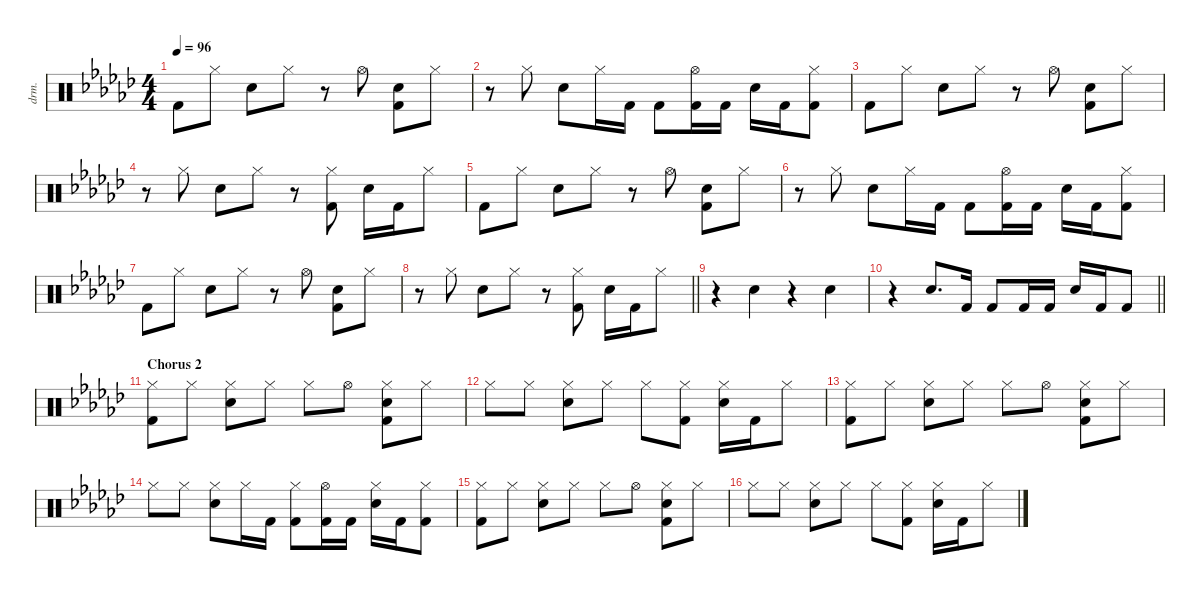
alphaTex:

\defaultSystemsLayout 4
\hideDynamics
\bracketExtendMode nobrackets
\otherSystemsTrackNameOrientation horizontal
\track ("Percussion" "drm.") {instrument percussion}
\staff {score}
\articulation defaults
\ts (4 4)
\tempo 96
\clef neutral
\ks gb "Kick (hit) 2"{acc forcenatural}.8{dy f beam Down} "Hi-Hat (closed)"{acc forcenatural}.8{beam Down} "Snare (hit) 2"{acc forcenatural}.8{beam Down} "Hi-Hat (closed)"{acc forcenatural}.8{beam Down}
r.8{beam Down} "Hi-Hat (open)"{acc forcenatural}.8{beam Down} ("Snare (hit) 2"{acc forcenatural} "Kick (hit) 2"{acc forcenatural}).8{beam Down} "Hi-Hat (closed)"{acc forcenatural}.8{beam Down} |
r.8{beam Down} "Hi-Hat (closed)"{acc forcenatural}.8{beam Down} "Snare (hit) 2"{acc forcenatural}.8{beam Down} "Hi-Hat (closed)"{acc forcenatural}.16{beam Down} "Kick (hit) 2"{acc forcenatural}.16{beam Down} "Kick (hit) 2"{acc forcenatural}.8{beam Down} ("Hi-Hat (open)"{acc forcenatural} "Kick (hit) 2"{acc forcenatural}).16{beam Down} "Kick (hit) 2"{acc forcenatural}.16{beam Down} "Snare (hit) 2"{acc forcenatural}.16{beam Down} "Kick (hit) 2"{acc forcenatural}.16{beam Down} ("Hi-Hat (closed)"{acc forcenatural} "Kick (hit) 2"{acc forcenatural}).8{beam Down} |
"Kick (hit) 2"{acc forcenatural}.8{beam Down} "Hi-Hat (closed)"{acc forcenatural}.8{beam Down} "Snare (hit) 2"{acc forcenatural}.8{beam Down} "Hi-Hat (closed)"{acc forcenatural}.8{beam Down} r.8{beam Down} "Hi-Hat (open)"{acc forcenatural}.8{beam Down} ("Snare (hit) 2"{acc forcenatural} "Kick (hit) 2"{acc forcenatural}).8{beam Down} "Hi-Hat (closed)"{acc forcenatural}.8{beam Down} |
r.8{beam Down} "Hi-Hat (closed)"{acc forcenatural}.8{beam Down} "Snare (hit) 2"{acc forcenatural}.8{beam Down} "Hi-Hat (closed)"{acc forcenatural}.8{beam Down} r.8{beam Down} ("Hi-Hat (closed)"{acc forcenatural} "Kick (hit) 2"{acc forcenatural}).8{beam Down} "Snare (hit) 2"{acc forcenatural}.16{beam Down} "Kick (hit) 2"{acc forcenatural}.16{beam Down} "Hi-Hat (closed)"{acc forcenatural}.8{beam Down} |
"Kick (hit) 2"{acc forcenatural}.8{beam Down} "Hi-Hat (closed)"{acc forcenatural}.8{beam Down} "Snare (hit) 2"{acc forcenatural}.8{beam Down} "Hi-Hat (closed)"{acc forcenatural}.8{beam Down} r.8{beam Down} "Hi-Hat (open)"{acc forcenatural}.8{beam Down} ("Snare (hit) 2"{acc forcenatural} "Kick (hit) 2"{acc forcenatural}).8{beam Down} "Hi-Hat (closed)"{acc forcenatural}.8{beam Down} |
r.8{beam Down} "Hi-Hat (closed)"{acc forcenatural}.8{beam Down} "Snare (hit) 2"{acc forcenatural}.8{beam Down} "Hi-Hat (closed)"{acc forcenatural}.16{beam Down} "Kick (hit) 2"{acc forcenatural}.16{beam Down} "Kick (hit) 2"{acc forcenatural}.8{beam Down} ("Hi-Hat (open)"{acc forcenatural} "Kick (hit) 2"{acc forcenatural}).16{beam Down} "Kick (hit) 2"{acc forcenatural}.16{beam Down} "Snare (hit) 2"{acc forcenatural}.16{beam Down} "Kick (hit) 2"{acc forcenatural}.16{beam Down} ("Hi-Hat (closed)"{acc forcenatural} "Kick (hit) 2"{acc forcenatural}).8{beam Down} |
"Kick (hit) 2"{acc forcenatural}.8{beam Down} "Hi-Hat (closed)"{acc forcenatural}.8{beam Down} "Snare (hit) 2"{acc forcenatural}.8{beam Down} "Hi-Hat (closed)"{acc forcenatural}.8{beam Down} r.8{beam Down} "Hi-Hat (open)"{acc forcenatural}.8{beam Down} ("Snare (hit) 2"{acc forcenatural} "Kick (hit) 2"{acc forcenatural}).8{beam Down} "Hi-Hat (closed)"{acc forcenatural}.8{beam Down} |
\barLineRight lightlight
r.8{beam Down} "Hi-Hat (closed)"{acc forcenatural}.8{beam Down} "Snare (hit) 2"{acc forcenatural}.8{beam Down} "Hi-Hat (closed)"{acc forcenatural}.8{beam Down} r.8{beam Down} ("Hi-Hat (closed)"{acc forcenatural} "Kick (hit) 2"{acc forcenatural}).8{beam Down} "Snare (hit) 2"{acc forcenatural}.16{beam Down} "Kick (hit) 2"{acc forcenatural}.16{beam Down} "Hi-Hat (closed)"{acc forcenatural}.8{beam Down} |
r.4{beam Down} "Snare (hit) 2"{acc forcenatural}.4{beam Down} r.4{beam Down} "Snare (hit) 2"{acc forcenatural}.4{beam Down} |
\barLineRight lightlight
r.4{beam Down} "Snare (hit) 2"{acc forcenatural}.8{d beam Up} "Kick (hit) 2"{acc forcenatural}.16{beam Up} "Kick (hit) 2"{acc forcenatural}.8{beam Up} "Kick (hit) 2"{acc forcenatural}.16{beam Up} "Kick (hit) 2"{acc forcenatural}.16{beam Up} "Snare (hit) 2"{acc forcenatural}.16{beam Up} "Kick (hit) 2"{acc forcenatural}.16{beam Up} "Kick (hit) 2"{acc forcenatural}.8{beam Up} |
\section ("" "Chorus 2")
("Hi-Hat (closed)"{acc forcenatural} "Kick (hit) 2"{acc forcenatural}).8{beam Down} "Hi-Hat (closed)"{acc forcenatural}.8{beam Down} ("Hi-Hat (closed)"{acc forcenatural} "Snare (hit) 2"{acc forcenatural}).8{beam Down} "Hi-Hat (closed)"{acc forcenatural}.8{beam Down} "Hi-Hat (closed)"{acc forcenatural}.8{beam Down} "Hi-Hat (open)"{acc forcenatural}.8{beam Down} ("Hi-Hat (closed)"{acc forcenatural} "Snare (hit) 2"{acc forcenatural} "Kick (hit) 2"{acc forcenatural}).8{beam Down} "Hi-Hat (closed)"{acc forcenatural}.8{beam Down} |
"Hi-Hat (closed)"{acc forcenatural}.8{beam Down} "Hi-Hat (closed)"{acc forcenatural}.8{beam Down} ("Hi-Hat (closed)"{acc forcenatural} "Snare (hit) 2"{acc forcenatural}).8{beam Down} "Hi-Hat (closed)"{acc forcenatural}.8{beam Down} "Hi-Hat (closed)"{acc forcenatural}.8{beam Down} ("Hi-Hat (closed)"{acc forcenatural} "Kick (hit) 2"{acc forcenatural}).8{beam Down} ("Hi-Hat (closed)"{acc forcenatural} "Snare (hit) 2"{acc forcenatural}).16{beam Down} "Kick (hit) 2"{acc forcenatural}.16{beam Down} "Hi-Hat (closed)"{acc forcenatural}.8{beam Down} |
("Hi-Hat (closed)"{acc forcenatural} "Kick (hit) 2"{acc forcenatural}).8{beam Down} "Hi-Hat (closed)"{acc forcenatural}.8{beam Down} ("Hi-Hat (closed)"{acc forcenatural} "Snare (hit) 2"{acc forcenatural}).8{beam Down} "Hi-Hat (closed)"{acc forcenatural}.8{beam Down} "Hi-Hat (closed)"{acc forcenatural}.8{beam Down} "Hi-Hat (open)"{acc forcenatural}.8{beam Down} ("Hi-Hat (closed)"{acc forcenatural} "Snare (hit) 2"{acc forcenatural} "Kick (hit) 2"{acc forcenatural}).8{beam Down} "Hi-Hat (closed)"{acc forcenatural}.8{beam Down} |
"Hi-Hat (closed)"{acc forcenatural}.8{beam Down} "Hi-Hat (closed)"{acc forcenatural}.8{beam Down} ("Hi-Hat (closed)"{acc forcenatural} "Snare (hit) 2"{acc forcenatural}).8{beam Down} "Hi-Hat (closed)"{acc forcenatural}.16{beam Down} "Kick (hit) 2"{acc forcenatural}.16{beam Down} ("Hi-Hat (closed)"{acc forcenatural} "Kick (hit) 2"{acc forcenatural}).8{beam Down} ("Hi-Hat (open)"{acc forcenatural} "Kick (hit) 2"{acc forcenatural}).16{beam Down} "Kick (hit) 2"{acc forcenatural}.16{beam Down} ("Hi-Hat (closed)"{acc forcenatural} "Snare (hit) 2"{acc forcenatural}).16{beam Down} "Kick (hit) 2"{acc forcenatural}.16{beam Down} ("Hi-Hat (closed)"{acc forcenatural} "Kick (hit) 2"{acc forcenatural}).8{beam Down} |
("Hi-Hat (closed)"{acc forcenatural} "Kick (hit) 2"{acc forcenatural}).8{beam Down} "Hi-Hat (closed)"{acc forcenatural}.8{beam Down} ("Hi-Hat (closed)"{acc forcenatural} "Snare (hit) 2"{acc forcenatural}).8{beam Down} "Hi-Hat (closed)"{acc forcenatural}.8{beam Down} "Hi-Hat (closed)"{acc forcenatural}.8{beam Down} "Hi-Hat (open)"{acc forcenatural}.8{beam Down} ("Hi-Hat (closed)"{acc forcenatural} "Snare (hit) 2"{acc forcenatural} "Kick (hit) 2"{acc forcenatural}).8{beam Down} "Hi-Hat (closed)"{acc forcenatural}.8{beam Down} |
"Hi-Hat (closed)"{acc forcenatural}.8{beam Down} "Hi-Hat (closed)"{acc forcenatural}.8{beam Down} ("Hi-Hat (closed)"{acc forcenatural} "Snare (hit) 2"{acc forcenatural}).8{beam Down} "Hi-Hat (closed)"{acc forcenatural}.8{beam Down} "Hi-Hat (closed)"{acc forcenatural}.8{beam Down} ("Hi-Hat (closed)"{acc forcenatural} "Kick (hit) 2"{acc forcenatural}).8{beam Down} ("Hi-Hat (closed)"{acc forcenatural} "Snare (hit) 2"{acc forcenatural}).16{beam Down} "Kick (hit) 2"{acc forcenatural}.16{beam Down} "Hi-Hat (closed)"{acc forcenatural}.8{beam Down}
